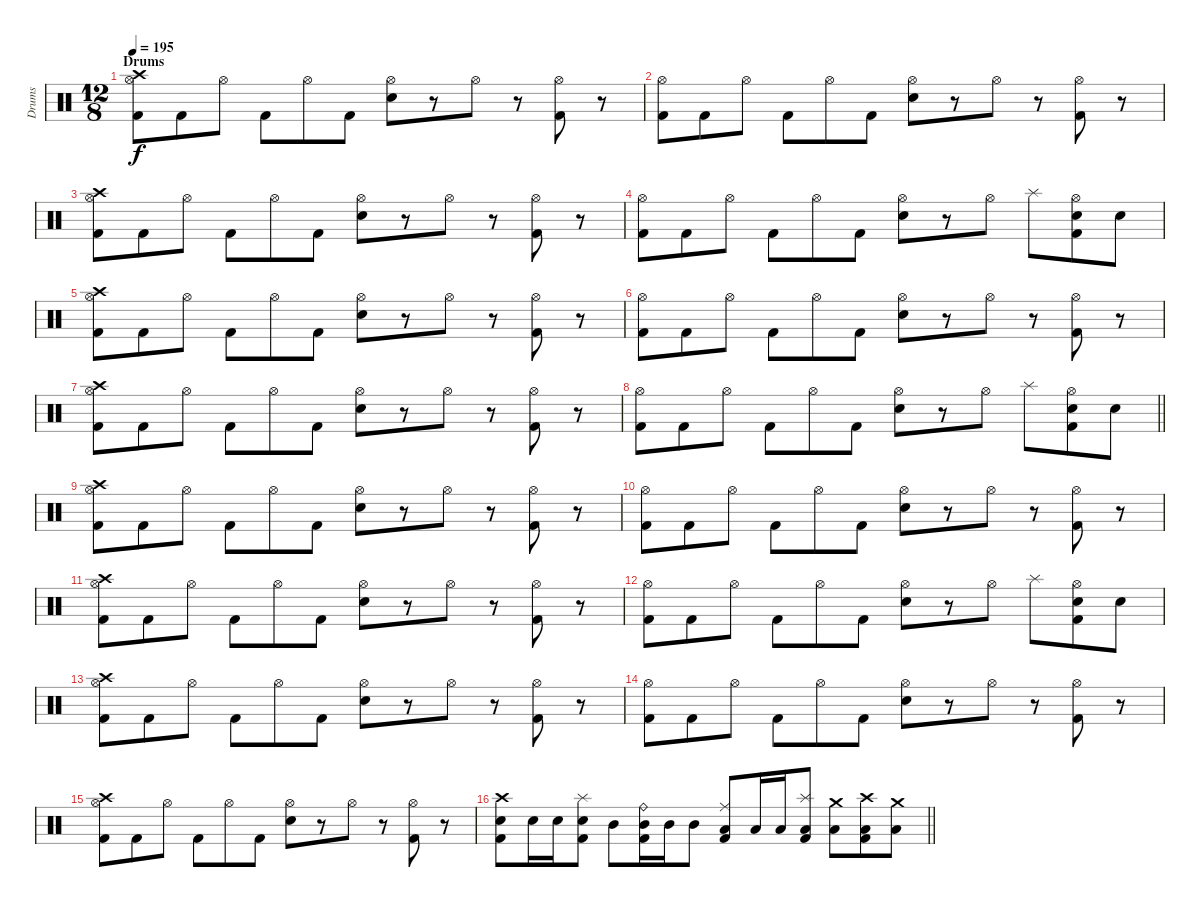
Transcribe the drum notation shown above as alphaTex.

\track ("Drums" "Drums") {instrument percussion}
\staff {score}
\articulation defaults
\ts (12 8)
\section ("" "Drums")
\tempo 195
\clef neutral
\ks c
("Crash high (hit)" "Hi-Hat (open)" "Kick (hit) 2").8{dy f} "Kick (hit) 2".8 "Hi-Hat (open)".8 "Kick (hit) 2".8 "Hi-Hat (open)".8 "Kick (hit) 2".8 ("Hi-Hat (open)" "Snare (hit) 2").8 r.8 "Hi-Hat (open)".8 r.8 ("Hi-Hat (open)" "Kick (hit) 2").8 r.8 |
("Hi-Hat (open)" "Kick (hit) 2").8 "Kick (hit) 2".8 "Hi-Hat (open)".8 "Kick (hit) 2".8 "Hi-Hat (open)".8 "Kick (hit) 2".8 ("Hi-Hat (open)" "Snare (hit) 2").8 r.8 "Hi-Hat (open)".8 r.8 ("Hi-Hat (open)" "Kick (hit) 2").8 r.8 |
("Crash high (hit)" "Hi-Hat (open)" "Kick (hit) 2").8 "Kick (hit) 2".8 "Hi-Hat (open)".8 "Kick (hit) 2".8 "Hi-Hat (open)".8 "Kick (hit) 2".8 ("Hi-Hat (open)" "Snare (hit) 2").8 r.8 "Hi-Hat (open)".8 r.8 ("Hi-Hat (open)" "Kick (hit) 2").8 r.8 |
("Hi-Hat (open)" "Kick (hit) 2").8 "Kick (hit) 2".8 "Hi-Hat (open)".8 "Kick (hit) 2".8 "Hi-Hat (open)".8 "Kick (hit) 2".8 ("Hi-Hat (open)" "Snare (hit) 2").8 r.8 "Hi-Hat (open)".8 "Splash (hit)".8 ("Hi-Hat (open)" "Snare (hit) 2" "Kick (hit) 2").8 "Snare (hit) 2".8 |
("Crash high (hit)" "Hi-Hat (open)" "Kick (hit) 2").8 "Kick (hit) 2".8 "Hi-Hat (open)".8 "Kick (hit) 2".8 "Hi-Hat (open)".8 "Kick (hit) 2".8 ("Hi-Hat (open)" "Snare (hit) 2").8 r.8 "Hi-Hat (open)".8 r.8 ("Hi-Hat (open)" "Kick (hit) 2").8 r.8 |
("Hi-Hat (open)" "Kick (hit) 2").8 "Kick (hit) 2".8 "Hi-Hat (open)".8 "Kick (hit) 2".8 "Hi-Hat (open)".8 "Kick (hit) 2".8 ("Hi-Hat (open)" "Snare (hit) 2").8 r.8 "Hi-Hat (open)".8 r.8 ("Hi-Hat (open)" "Kick (hit) 2").8 r.8 |
("Crash high (hit)" "Hi-Hat (open)" "Kick (hit) 2").8 "Kick (hit) 2".8 "Hi-Hat (open)".8 "Kick (hit) 2".8 "Hi-Hat (open)".8 "Kick (hit) 2".8 ("Hi-Hat (open)" "Snare (hit) 2").8 r.8 "Hi-Hat (open)".8 r.8 ("Hi-Hat (open)" "Kick (hit) 2").8 r.8 |
\barLineRight lightlight
("Hi-Hat (open)" "Kick (hit) 2").8 "Kick (hit) 2".8 "Hi-Hat (open)".8 "Kick (hit) 2".8 "Hi-Hat (open)".8 "Kick (hit) 2".8 ("Hi-Hat (open)" "Snare (hit) 2").8 r.8 "Hi-Hat (open)".8 "Splash (hit)".8 ("Hi-Hat (open)" "Snare (hit) 2" "Kick (hit) 2").8 "Snare (hit) 2".8 |
("Crash high (hit)" "Hi-Hat (open)" "Kick (hit) 2").8 "Kick (hit) 2".8 "Hi-Hat (open)".8 "Kick (hit) 2".8 "Hi-Hat (open)".8 "Kick (hit) 2".8 ("Hi-Hat (open)" "Snare (hit) 2").8 r.8 "Hi-Hat (open)".8 r.8 ("Hi-Hat (open)" "Kick (hit) 2").8 r.8 |
("Hi-Hat (open)" "Kick (hit) 2").8 "Kick (hit) 2".8 "Hi-Hat (open)".8 "Kick (hit) 2".8 "Hi-Hat (open)".8 "Kick (hit) 2".8 ("Hi-Hat (open)" "Snare (hit) 2").8 r.8 "Hi-Hat (open)".8 r.8 ("Hi-Hat (open)" "Kick (hit) 2").8 r.8 |
("Crash high (hit)" "Hi-Hat (open)" "Kick (hit) 2").8 "Kick (hit) 2".8 "Hi-Hat (open)".8 "Kick (hit) 2".8 "Hi-Hat (open)".8 "Kick (hit) 2".8 ("Hi-Hat (open)" "Snare (hit) 2").8 r.8 "Hi-Hat (open)".8 r.8 ("Hi-Hat (open)" "Kick (hit) 2").8 r.8 |
("Hi-Hat (open)" "Kick (hit) 2").8 "Kick (hit) 2".8 "Hi-Hat (open)".8 "Kick (hit) 2".8 "Hi-Hat (open)".8 "Kick (hit) 2".8 ("Hi-Hat (open)" "Snare (hit) 2").8 r.8 "Hi-Hat (open)".8 "Splash (hit)".8 ("Hi-Hat (open)" "Snare (hit) 2" "Kick (hit) 2").8 "Snare (hit) 2".8 |
("Crash high (hit)" "Hi-Hat (open)" "Kick (hit) 2").8 "Kick (hit) 2".8 "Hi-Hat (open)".8 "Kick (hit) 2".8 "Hi-Hat (open)".8 "Kick (hit) 2".8 ("Hi-Hat (open)" "Snare (hit) 2").8 r.8 "Hi-Hat (open)".8 r.8 ("Hi-Hat (open)" "Kick (hit) 2").8 r.8 |
("Hi-Hat (open)" "Kick (hit) 2").8 "Kick (hit) 2".8 "Hi-Hat (open)".8 "Kick (hit) 2".8 "Hi-Hat (open)".8 "Kick (hit) 2".8 ("Hi-Hat (open)" "Snare (hit) 2").8 r.8 "Hi-Hat (open)".8 r.8 ("Hi-Hat (open)" "Kick (hit) 2").8 r.8 |
("Crash high (hit)" "Hi-Hat (open)" "Kick (hit) 2").8 "Kick (hit) 2".8 "Hi-Hat (open)".8 "Kick (hit) 2".8 "Hi-Hat (open)".8 "Kick (hit) 2".8 ("Hi-Hat (open)" "Snare (hit) 2").8 r.8 "Hi-Hat (open)".8 r.8 ("Hi-Hat (open)" "Kick (hit) 2").8 r.8 |
\barLineRight lightlight
("Crash high (hit)" "Snare (hit) 2" "Kick (hit) 2").8 "Snare (hit) 2".16 "Snare (hit) 2".16 ("Splash (hit)" "Snare (hit) 2" "Kick (hit) 2").8 "Mid Tom (hit)".8 ("Ride (bell)" "Mid Tom (hit)" "Kick (hit) 2").16 "Mid Tom (hit)".16 "Mid Tom (hit)".8 ("Ride (middle)" "Low Tom (hit)" "Kick (hit) 2").8 "Low Tom (hit)".16 "Low Tom (hit)".16 ("Splash (hit)" "Low Tom (hit)" "Kick (hit) 2").8 ("Crash medium (hit)" "Low Floor Tom (hit)").8 ("Crash high (hit)" "Low Floor Tom (hit)" "Kick (hit) 2").8 ("Crash medium (hit)" "Low Floor Tom (hit)").8
